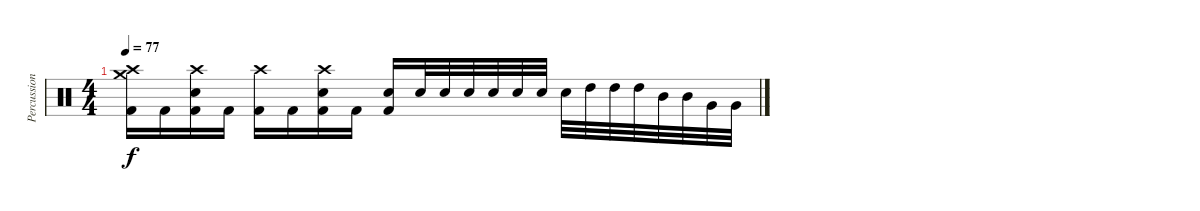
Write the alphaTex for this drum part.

\track ("Percussion" "Percussion") {instrument percussion}
\staff {score}
\articulation defaults
\ts (4 4)
\tempo 77
\clef neutral
\ks c
("Crash medium (hit)" "Crash high (hit)" "Kick (hit) 2").16{dy f} "Kick (hit) 2".16 ("Crash high (hit)" "Electric Snare (hit)" "Kick (hit) 2").16 "Kick (hit) 2".16 ("Crash high (hit)" "Kick (hit) 2").16 "Kick (hit) 2".16 ("Crash high (hit)" "Electric Snare (hit)" "Kick (hit) 2").16 "Kick (hit) 2".16 ("Electric Snare (hit)" "Kick (hit) 2").16 "Electric Snare (hit)".32 "Electric Snare (hit)".32 "Electric Snare (hit)".32 "Electric Snare (hit)".32 "Electric Snare (hit)".32 "Electric Snare (hit)".32 "Electric Snare (hit)".32 "High Tom (hit)".32 "High Tom (hit)".32 "High Tom (hit)".32 "Mid Tom (hit)".32 "Mid Tom (hit)".32 "Very Low Tom (hit)".32 "Very Low Tom (hit)".32
